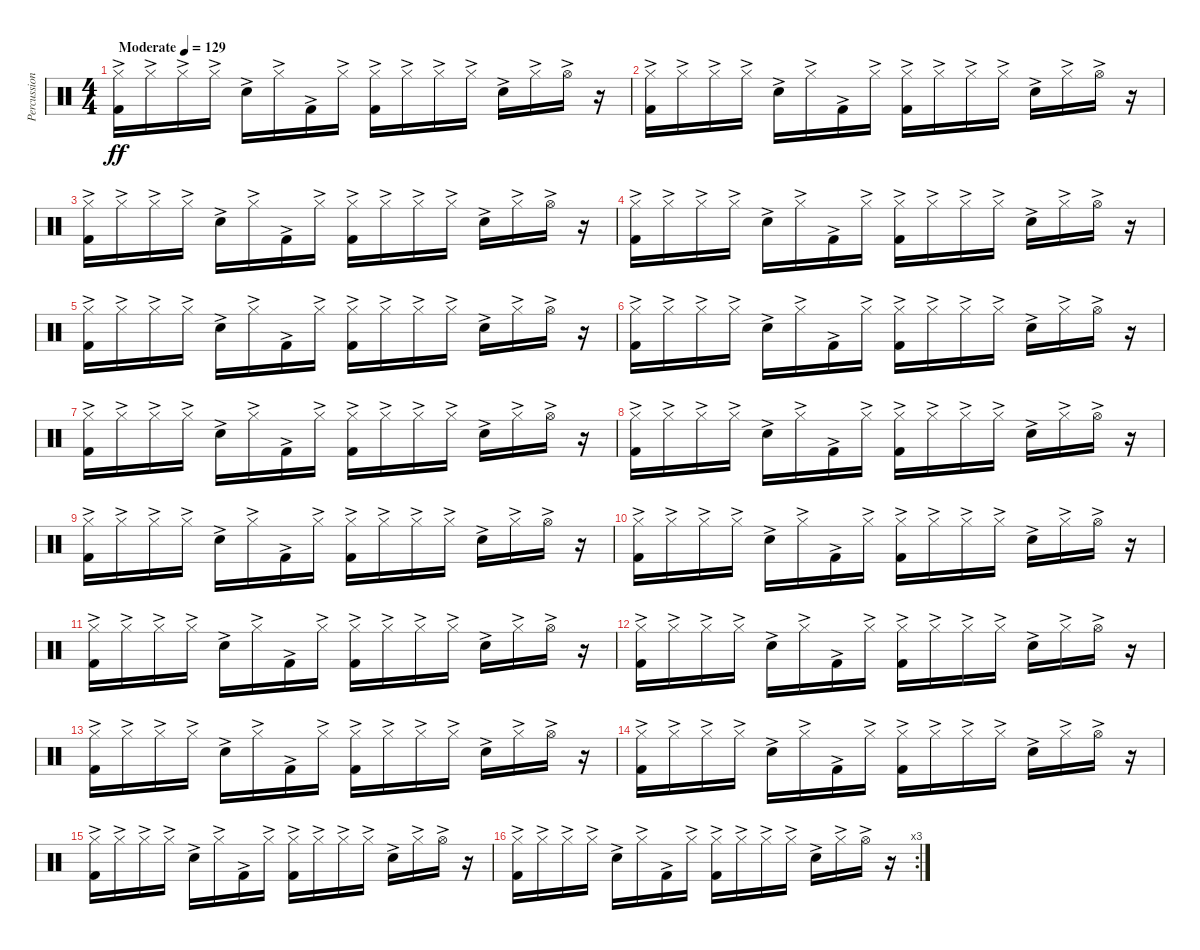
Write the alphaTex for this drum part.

\track ("Percussion" "Percussion") {instrument percussion}
\staff {score}
\articulation defaults
\ts (4 4)
\tempo (129 "Moderate")
\clef neutral
\ks c
("Hi-Hat (closed)"{ac} "Kick (hit) 2"{ac}).16{dy ff} "Hi-Hat (closed)"{ac}.16 "Hi-Hat (closed)"{ac}.16 "Hi-Hat (closed)"{ac}.16 "Snare (hit) 2"{ac}.16 "Hi-Hat (closed)"{ac}.16 "Kick (hit) 2"{ac}.16 "Hi-Hat (closed)"{ac}.16 ("Hi-Hat (closed)"{ac} "Kick (hit) 2"{ac}).16 "Hi-Hat (closed)"{ac}.16 "Hi-Hat (closed)"{ac}.16 "Hi-Hat (closed)"{ac}.16 "Snare (hit) 2"{ac}.16 "Hi-Hat (closed)"{ac}.16 "Hi-Hat (open)"{ac}.16 r.16 |
("Hi-Hat (closed)"{ac} "Kick (hit) 2"{ac}).16 "Hi-Hat (closed)"{ac}.16 "Hi-Hat (closed)"{ac}.16 "Hi-Hat (closed)"{ac}.16 "Snare (hit) 2"{ac}.16 "Hi-Hat (closed)"{ac}.16 "Kick (hit) 2"{ac}.16 "Hi-Hat (closed)"{ac}.16 ("Hi-Hat (closed)"{ac} "Kick (hit) 2"{ac}).16 "Hi-Hat (closed)"{ac}.16 "Hi-Hat (closed)"{ac}.16 "Hi-Hat (closed)"{ac}.16 "Snare (hit) 2"{ac}.16 "Hi-Hat (closed)"{ac}.16 "Hi-Hat (open)"{ac}.16 r.16 |
("Hi-Hat (closed)"{ac} "Kick (hit) 2"{ac}).16 "Hi-Hat (closed)"{ac}.16 "Hi-Hat (closed)"{ac}.16 "Hi-Hat (closed)"{ac}.16 "Snare (hit) 2"{ac}.16 "Hi-Hat (closed)"{ac}.16 "Kick (hit) 2"{ac}.16 "Hi-Hat (closed)"{ac}.16 ("Hi-Hat (closed)"{ac} "Kick (hit) 2"{ac}).16 "Hi-Hat (closed)"{ac}.16 "Hi-Hat (closed)"{ac}.16 "Hi-Hat (closed)"{ac}.16 "Snare (hit) 2"{ac}.16 "Hi-Hat (closed)"{ac}.16 "Hi-Hat (open)"{ac}.16 r.16 |
("Hi-Hat (closed)"{ac} "Kick (hit) 2"{ac}).16 "Hi-Hat (closed)"{ac}.16 "Hi-Hat (closed)"{ac}.16 "Hi-Hat (closed)"{ac}.16 "Snare (hit) 2"{ac}.16 "Hi-Hat (closed)"{ac}.16 "Kick (hit) 2"{ac}.16 "Hi-Hat (closed)"{ac}.16 ("Hi-Hat (closed)"{ac} "Kick (hit) 2"{ac}).16 "Hi-Hat (closed)"{ac}.16 "Hi-Hat (closed)"{ac}.16 "Hi-Hat (closed)"{ac}.16 "Snare (hit) 2"{ac}.16 "Hi-Hat (closed)"{ac}.16 "Hi-Hat (open)"{ac}.16 r.16 |
("Hi-Hat (closed)"{ac} "Kick (hit) 2"{ac}).16 "Hi-Hat (closed)"{ac}.16 "Hi-Hat (closed)"{ac}.16 "Hi-Hat (closed)"{ac}.16 "Snare (hit) 2"{ac}.16 "Hi-Hat (closed)"{ac}.16 "Kick (hit) 2"{ac}.16 "Hi-Hat (closed)"{ac}.16 ("Hi-Hat (closed)"{ac} "Kick (hit) 2"{ac}).16 "Hi-Hat (closed)"{ac}.16 "Hi-Hat (closed)"{ac}.16 "Hi-Hat (closed)"{ac}.16 "Snare (hit) 2"{ac}.16 "Hi-Hat (closed)"{ac}.16 "Hi-Hat (open)"{ac}.16 r.16 |
("Hi-Hat (closed)"{ac} "Kick (hit) 2"{ac}).16 "Hi-Hat (closed)"{ac}.16 "Hi-Hat (closed)"{ac}.16 "Hi-Hat (closed)"{ac}.16 "Snare (hit) 2"{ac}.16 "Hi-Hat (closed)"{ac}.16 "Kick (hit) 2"{ac}.16 "Hi-Hat (closed)"{ac}.16 ("Hi-Hat (closed)"{ac} "Kick (hit) 2"{ac}).16 "Hi-Hat (closed)"{ac}.16 "Hi-Hat (closed)"{ac}.16 "Hi-Hat (closed)"{ac}.16 "Snare (hit) 2"{ac}.16 "Hi-Hat (closed)"{ac}.16 "Hi-Hat (open)"{ac}.16 r.16 |
("Hi-Hat (closed)"{ac} "Kick (hit) 2"{ac}).16 "Hi-Hat (closed)"{ac}.16 "Hi-Hat (closed)"{ac}.16 "Hi-Hat (closed)"{ac}.16 "Snare (hit) 2"{ac}.16 "Hi-Hat (closed)"{ac}.16 "Kick (hit) 2"{ac}.16 "Hi-Hat (closed)"{ac}.16 ("Hi-Hat (closed)"{ac} "Kick (hit) 2"{ac}).16 "Hi-Hat (closed)"{ac}.16 "Hi-Hat (closed)"{ac}.16 "Hi-Hat (closed)"{ac}.16 "Snare (hit) 2"{ac}.16 "Hi-Hat (closed)"{ac}.16 "Hi-Hat (open)"{ac}.16 r.16 |
("Hi-Hat (closed)"{ac} "Kick (hit) 2"{ac}).16 "Hi-Hat (closed)"{ac}.16 "Hi-Hat (closed)"{ac}.16 "Hi-Hat (closed)"{ac}.16 "Snare (hit) 2"{ac}.16 "Hi-Hat (closed)"{ac}.16 "Kick (hit) 2"{ac}.16 "Hi-Hat (closed)"{ac}.16 ("Hi-Hat (closed)"{ac} "Kick (hit) 2"{ac}).16 "Hi-Hat (closed)"{ac}.16 "Hi-Hat (closed)"{ac}.16 "Hi-Hat (closed)"{ac}.16 "Snare (hit) 2"{ac}.16 "Hi-Hat (closed)"{ac}.16 "Hi-Hat (open)"{ac}.16 r.16 |
("Hi-Hat (closed)"{ac} "Kick (hit) 2"{ac}).16 "Hi-Hat (closed)"{ac}.16 "Hi-Hat (closed)"{ac}.16 "Hi-Hat (closed)"{ac}.16 "Snare (hit) 2"{ac}.16 "Hi-Hat (closed)"{ac}.16 "Kick (hit) 2"{ac}.16 "Hi-Hat (closed)"{ac}.16 ("Hi-Hat (closed)"{ac} "Kick (hit) 2"{ac}).16 "Hi-Hat (closed)"{ac}.16 "Hi-Hat (closed)"{ac}.16 "Hi-Hat (closed)"{ac}.16 "Snare (hit) 2"{ac}.16 "Hi-Hat (closed)"{ac}.16 "Hi-Hat (open)"{ac}.16 r.16 |
("Hi-Hat (closed)"{ac} "Kick (hit) 2"{ac}).16 "Hi-Hat (closed)"{ac}.16 "Hi-Hat (closed)"{ac}.16 "Hi-Hat (closed)"{ac}.16 "Snare (hit) 2"{ac}.16 "Hi-Hat (closed)"{ac}.16 "Kick (hit) 2"{ac}.16 "Hi-Hat (closed)"{ac}.16 ("Hi-Hat (closed)"{ac} "Kick (hit) 2"{ac}).16 "Hi-Hat (closed)"{ac}.16 "Hi-Hat (closed)"{ac}.16 "Hi-Hat (closed)"{ac}.16 "Snare (hit) 2"{ac}.16 "Hi-Hat (closed)"{ac}.16 "Hi-Hat (open)"{ac}.16 r.16 |
("Hi-Hat (closed)"{ac} "Kick (hit) 2"{ac}).16 "Hi-Hat (closed)"{ac}.16 "Hi-Hat (closed)"{ac}.16 "Hi-Hat (closed)"{ac}.16 "Snare (hit) 2"{ac}.16 "Hi-Hat (closed)"{ac}.16 "Kick (hit) 2"{ac}.16 "Hi-Hat (closed)"{ac}.16 ("Hi-Hat (closed)"{ac} "Kick (hit) 2"{ac}).16 "Hi-Hat (closed)"{ac}.16 "Hi-Hat (closed)"{ac}.16 "Hi-Hat (closed)"{ac}.16 "Snare (hit) 2"{ac}.16 "Hi-Hat (closed)"{ac}.16 "Hi-Hat (open)"{ac}.16 r.16 |
("Hi-Hat (closed)"{ac} "Kick (hit) 2"{ac}).16 "Hi-Hat (closed)"{ac}.16 "Hi-Hat (closed)"{ac}.16 "Hi-Hat (closed)"{ac}.16 "Snare (hit) 2"{ac}.16 "Hi-Hat (closed)"{ac}.16 "Kick (hit) 2"{ac}.16 "Hi-Hat (closed)"{ac}.16 ("Hi-Hat (closed)"{ac} "Kick (hit) 2"{ac}).16 "Hi-Hat (closed)"{ac}.16 "Hi-Hat (closed)"{ac}.16 "Hi-Hat (closed)"{ac}.16 "Snare (hit) 2"{ac}.16 "Hi-Hat (closed)"{ac}.16 "Hi-Hat (open)"{ac}.16 r.16 |
("Hi-Hat (closed)"{ac} "Kick (hit) 2"{ac}).16 "Hi-Hat (closed)"{ac}.16 "Hi-Hat (closed)"{ac}.16 "Hi-Hat (closed)"{ac}.16 "Snare (hit) 2"{ac}.16 "Hi-Hat (closed)"{ac}.16 "Kick (hit) 2"{ac}.16 "Hi-Hat (closed)"{ac}.16 ("Hi-Hat (closed)"{ac} "Kick (hit) 2"{ac}).16 "Hi-Hat (closed)"{ac}.16 "Hi-Hat (closed)"{ac}.16 "Hi-Hat (closed)"{ac}.16 "Snare (hit) 2"{ac}.16 "Hi-Hat (closed)"{ac}.16 "Hi-Hat (open)"{ac}.16 r.16 |
("Hi-Hat (closed)"{ac} "Kick (hit) 2"{ac}).16 "Hi-Hat (closed)"{ac}.16 "Hi-Hat (closed)"{ac}.16 "Hi-Hat (closed)"{ac}.16 "Snare (hit) 2"{ac}.16 "Hi-Hat (closed)"{ac}.16 "Kick (hit) 2"{ac}.16 "Hi-Hat (closed)"{ac}.16 ("Hi-Hat (closed)"{ac} "Kick (hit) 2"{ac}).16 "Hi-Hat (closed)"{ac}.16 "Hi-Hat (closed)"{ac}.16 "Hi-Hat (closed)"{ac}.16 "Snare (hit) 2"{ac}.16 "Hi-Hat (closed)"{ac}.16 "Hi-Hat (open)"{ac}.16 r.16 |
("Hi-Hat (closed)"{ac} "Kick (hit) 2"{ac}).16 "Hi-Hat (closed)"{ac}.16 "Hi-Hat (closed)"{ac}.16 "Hi-Hat (closed)"{ac}.16 "Snare (hit) 2"{ac}.16 "Hi-Hat (closed)"{ac}.16 "Kick (hit) 2"{ac}.16 "Hi-Hat (closed)"{ac}.16 ("Hi-Hat (closed)"{ac} "Kick (hit) 2"{ac}).16 "Hi-Hat (closed)"{ac}.16 "Hi-Hat (closed)"{ac}.16 "Hi-Hat (closed)"{ac}.16 "Snare (hit) 2"{ac}.16 "Hi-Hat (closed)"{ac}.16 "Hi-Hat (open)"{ac}.16 r.16 |
\rc 3
("Hi-Hat (closed)"{ac} "Kick (hit) 2"{ac}).16 "Hi-Hat (closed)"{ac}.16 "Hi-Hat (closed)"{ac}.16 "Hi-Hat (closed)"{ac}.16 "Snare (hit) 2"{ac}.16 "Hi-Hat (closed)"{ac}.16 "Kick (hit) 2"{ac}.16 "Hi-Hat (closed)"{ac}.16 ("Hi-Hat (closed)"{ac} "Kick (hit) 2"{ac}).16 "Hi-Hat (closed)"{ac}.16 "Hi-Hat (closed)"{ac}.16 "Hi-Hat (closed)"{ac}.16 "Snare (hit) 2"{ac}.16 "Hi-Hat (closed)"{ac}.16 "Hi-Hat (open)"{ac}.16 r.16
